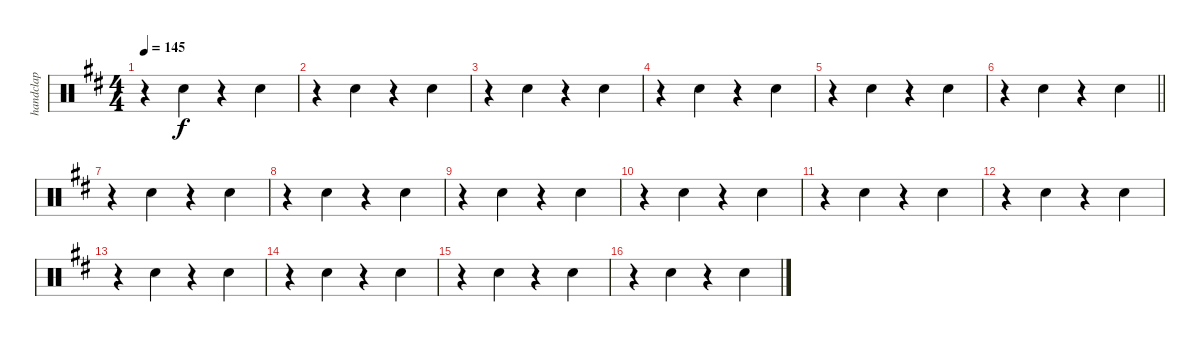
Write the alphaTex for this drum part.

\track ("handclap" "handclap") {instrument percussion}
\staff {score}
\articulation defaults
\ts (4 4)
\tempo 145
\clef neutral
\ks d
r.4{dy f} "Hand Clap (hit)".4 r.4 "Hand Clap (hit)".4 |
r.4 "Hand Clap (hit)".4 r.4 "Hand Clap (hit)".4 |
r.4 "Hand Clap (hit)".4 r.4 "Hand Clap (hit)".4 |
r.4 "Hand Clap (hit)".4 r.4 "Hand Clap (hit)".4 |
r.4 "Hand Clap (hit)".4 r.4 "Hand Clap (hit)".4 |
\barLineRight lightlight
r.4 "Hand Clap (hit)".4 r.4 "Hand Clap (hit)".4 |
r.4 "Hand Clap (hit)".4 r.4 "Hand Clap (hit)".4 |
r.4 "Hand Clap (hit)".4 r.4 "Hand Clap (hit)".4 |
r.4 "Hand Clap (hit)".4 r.4 "Hand Clap (hit)".4 |
r.4 "Hand Clap (hit)".4 r.4 "Hand Clap (hit)".4 |
r.4 "Hand Clap (hit)".4 r.4 "Hand Clap (hit)".4 |
r.4 "Hand Clap (hit)".4 r.4 "Hand Clap (hit)".4 |
r.4 "Hand Clap (hit)".4 r.4 "Hand Clap (hit)".4 |
r.4 "Hand Clap (hit)".4 r.4 "Hand Clap (hit)".4 |
r.4 "Hand Clap (hit)".4 r.4 "Hand Clap (hit)".4 |
r.4 "Hand Clap (hit)".4 r.4 "Hand Clap (hit)".4
